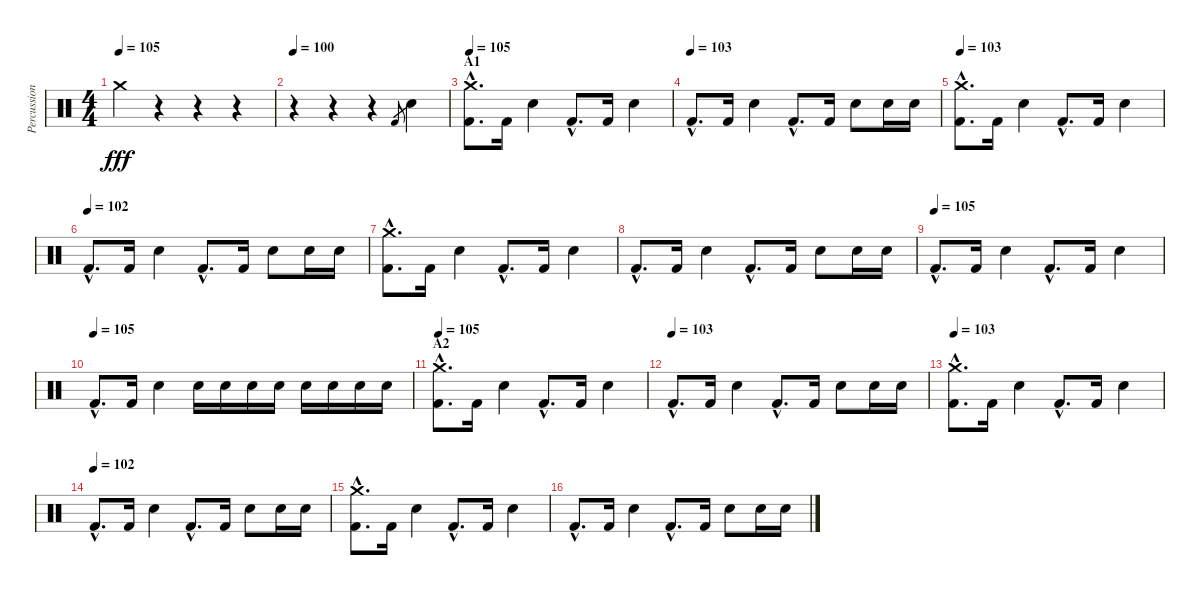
\track ("Percussion" "Percussion") {instrument percussion}
\staff {score}
\articulation defaults
\ts (4 4)
\tempo 105
\clef neutral
\ks c "Crash medium (hit)".4{dy fff}
r.4 r.4 r.4 |
\tempo 100
r.4 r.4 r.4 "Kick (hit) 2".8{gr} "Electric Snare (hit)".4 |
\section ("" "A1")
\tempo 105
("Kick (hit) 2"{hac} "Crash medium (hit)"{hac}).8{d} "Kick (hit) 2".16 "Electric Snare (hit)".4 "Kick (hit) 2"{hac}.8{d} "Kick (hit) 2".16 "Electric Snare (hit)".4 |
\tempo (103)
"Kick (hit) 2"{hac}.8{d} "Kick (hit) 2".16 "Electric Snare (hit)".4 "Kick (hit) 2"{hac}.8{d} "Kick (hit) 2".16 "Electric Snare (hit)".8 "Electric Snare (hit)".16 "Electric Snare (hit)".16 |
\tempo 103
("Kick (hit) 2"{hac} "Crash medium (hit)"{hac}).8{d} "Kick (hit) 2".16 "Electric Snare (hit)".4 "Kick (hit) 2"{hac}.8{d} "Kick (hit) 2".16 "Electric Snare (hit)".4 |
\tempo (102)
"Kick (hit) 2"{hac}.8{d} "Kick (hit) 2".16 "Electric Snare (hit)".4 "Kick (hit) 2"{hac}.8{d} "Kick (hit) 2".16 "Electric Snare (hit)".8 "Electric Snare (hit)".16 "Electric Snare (hit)".16 |
("Kick (hit) 2"{hac} "Crash medium (hit)"{hac}).8{d} "Kick (hit) 2".16 "Electric Snare (hit)".4 "Kick (hit) 2"{hac}.8{d} "Kick (hit) 2".16 "Electric Snare (hit)".4 |
"Kick (hit) 2"{hac}.8{d} "Kick (hit) 2".16 "Electric Snare (hit)".4 "Kick (hit) 2"{hac}.8{d} "Kick (hit) 2".16 "Electric Snare (hit)".8 "Electric Snare (hit)".16 "Electric Snare (hit)".16 |
\tempo (105)
"Kick (hit) 2"{hac}.8{d} "Kick (hit) 2".16 "Electric Snare (hit)".4 "Kick (hit) 2"{hac}.8{d} "Kick (hit) 2".16 "Electric Snare (hit)".4 |
\tempo (105)
"Kick (hit) 2"{hac}.8{d} "Kick (hit) 2".16 "Electric Snare (hit)".4 "Electric Snare (hit)".16 "Electric Snare (hit)".16 "Electric Snare (hit)".16 "Electric Snare (hit)".16 "Electric Snare (hit)".16 "Electric Snare (hit)".16 "Electric Snare (hit)".16 "Electric Snare (hit)".16 |
\section ("" "A2")
\tempo 105
("Kick (hit) 2"{hac} "Crash medium (hit)"{hac}).8{d} "Kick (hit) 2".16 "Electric Snare (hit)".4 "Kick (hit) 2"{hac}.8{d} "Kick (hit) 2".16 "Electric Snare (hit)".4 |
\tempo (103)
"Kick (hit) 2"{hac}.8{d} "Kick (hit) 2".16 "Electric Snare (hit)".4 "Kick (hit) 2"{hac}.8{d} "Kick (hit) 2".16 "Electric Snare (hit)".8 "Electric Snare (hit)".16 "Electric Snare (hit)".16 |
\tempo 103
("Kick (hit) 2"{hac} "Crash medium (hit)"{hac}).8{d} "Kick (hit) 2".16 "Electric Snare (hit)".4 "Kick (hit) 2"{hac}.8{d} "Kick (hit) 2".16 "Electric Snare (hit)".4 |
\tempo (102)
"Kick (hit) 2"{hac}.8{d} "Kick (hit) 2".16 "Electric Snare (hit)".4 "Kick (hit) 2"{hac}.8{d} "Kick (hit) 2".16 "Electric Snare (hit)".8 "Electric Snare (hit)".16 "Electric Snare (hit)".16 |
("Kick (hit) 2"{hac} "Crash medium (hit)"{hac}).8{d} "Kick (hit) 2".16 "Electric Snare (hit)".4 "Kick (hit) 2"{hac}.8{d} "Kick (hit) 2".16 "Electric Snare (hit)".4 |
"Kick (hit) 2"{hac}.8{d} "Kick (hit) 2".16 "Electric Snare (hit)".4 "Kick (hit) 2"{hac}.8{d} "Kick (hit) 2".16 "Electric Snare (hit)".8 "Electric Snare (hit)".16 "Electric Snare (hit)".16
